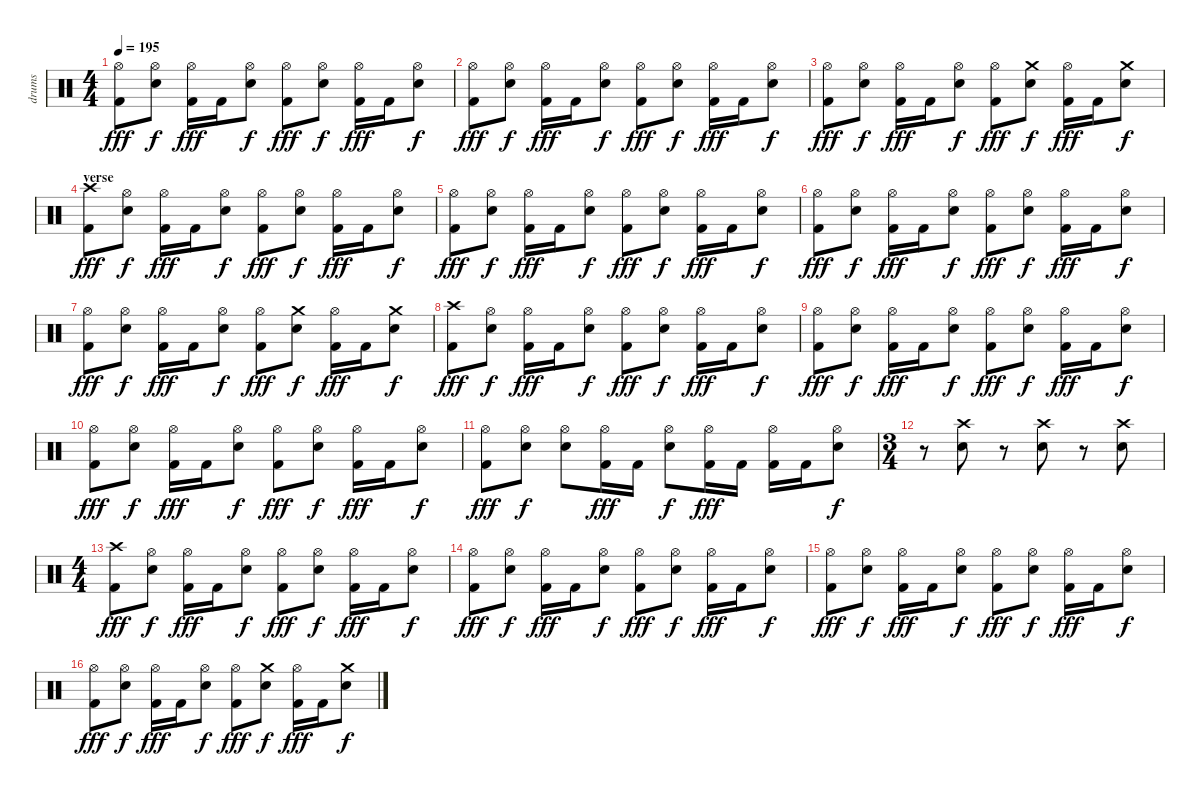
\track ("drums" "drums") {instrument percussion}
\staff {score}
\articulation defaults
\ts (4 4)
\tempo 195
\clef neutral
\ks c
("Hi-Hat (open)" "Kick (hit) 2").8{dy fff} ("Hi-Hat (open)" "Snare (hit) 2").8{dy f} ("Hi-Hat (open)" "Kick (hit) 2").16{dy fff} "Kick (hit) 2".16 ("Hi-Hat (open)" "Snare (hit) 2").8{dy f} ("Hi-Hat (open)" "Kick (hit) 2").8{dy fff} ("Hi-Hat (open)" "Snare (hit) 2").8{dy f} ("Hi-Hat (open)" "Kick (hit) 2").16{dy fff} "Kick (hit) 2".16 ("Hi-Hat (open)" "Snare (hit) 2").8{dy f} |
("Hi-Hat (open)" "Kick (hit) 2").8{dy fff} ("Hi-Hat (open)" "Snare (hit) 2").8{dy f} ("Hi-Hat (open)" "Kick (hit) 2").16{dy fff} "Kick (hit) 2".16 ("Hi-Hat (open)" "Snare (hit) 2").8{dy f} ("Hi-Hat (open)" "Kick (hit) 2").8{dy fff} ("Hi-Hat (open)" "Snare (hit) 2").8{dy f} ("Hi-Hat (open)" "Kick (hit) 2").16{dy fff} "Kick (hit) 2".16 ("Hi-Hat (open)" "Snare (hit) 2").8{dy f} |
("Hi-Hat (open)" "Kick (hit) 2").8{dy fff} ("Hi-Hat (open)" "Snare (hit) 2").8{dy f} ("Hi-Hat (open)" "Kick (hit) 2").16{dy fff} "Kick (hit) 2".16 ("Hi-Hat (open)" "Snare (hit) 2").8{dy f} ("Hi-Hat (open)" "Kick (hit) 2").8{dy fff} ("Crash medium (hit)" "Snare (hit) 2").8{dy f} ("Hi-Hat (open)" "Kick (hit) 2").16{dy fff} "Kick (hit) 2".16 ("Crash medium (hit)" "Snare (hit) 2").8{dy f} |
\section ("" "verse")
("Crash high (hit)" "Kick (hit) 2").8{dy fff} ("Hi-Hat (open)" "Snare (hit) 2").8{dy f} ("Hi-Hat (open)" "Kick (hit) 2").16{dy fff} "Kick (hit) 2".16 ("Hi-Hat (open)" "Snare (hit) 2").8{dy f} ("Hi-Hat (open)" "Kick (hit) 2").8{dy fff} ("Hi-Hat (open)" "Snare (hit) 2").8{dy f} ("Hi-Hat (open)" "Kick (hit) 2").16{dy fff} "Kick (hit) 2".16 ("Hi-Hat (open)" "Snare (hit) 2").8{dy f} |
("Hi-Hat (open)" "Kick (hit) 2").8{dy fff} ("Hi-Hat (open)" "Snare (hit) 2").8{dy f} ("Hi-Hat (open)" "Kick (hit) 2").16{dy fff} "Kick (hit) 2".16 ("Hi-Hat (open)" "Snare (hit) 2").8{dy f} ("Hi-Hat (open)" "Kick (hit) 2").8{dy fff} ("Hi-Hat (open)" "Snare (hit) 2").8{dy f} ("Hi-Hat (open)" "Kick (hit) 2").16{dy fff} "Kick (hit) 2".16 ("Hi-Hat (open)" "Snare (hit) 2").8{dy f} |
("Hi-Hat (open)" "Kick (hit) 2").8{dy fff} ("Hi-Hat (open)" "Snare (hit) 2").8{dy f} ("Hi-Hat (open)" "Kick (hit) 2").16{dy fff} "Kick (hit) 2".16 ("Hi-Hat (open)" "Snare (hit) 2").8{dy f} ("Hi-Hat (open)" "Kick (hit) 2").8{dy fff} ("Hi-Hat (open)" "Snare (hit) 2").8{dy f} ("Hi-Hat (open)" "Kick (hit) 2").16{dy fff} "Kick (hit) 2".16 ("Hi-Hat (open)" "Snare (hit) 2").8{dy f} |
("Hi-Hat (open)" "Kick (hit) 2").8{dy fff} ("Hi-Hat (open)" "Snare (hit) 2").8{dy f} ("Hi-Hat (open)" "Kick (hit) 2").16{dy fff} "Kick (hit) 2".16 ("Hi-Hat (open)" "Snare (hit) 2").8{dy f} ("Hi-Hat (open)" "Kick (hit) 2").8{dy fff} ("Crash medium (hit)" "Snare (hit) 2").8{dy f} ("Hi-Hat (open)" "Kick (hit) 2").16{dy fff} "Kick (hit) 2".16 ("Crash medium (hit)" "Snare (hit) 2").8{dy f} |
("Crash high (hit)" "Kick (hit) 2").8{dy fff} ("Hi-Hat (open)" "Snare (hit) 2").8{dy f} ("Hi-Hat (open)" "Kick (hit) 2").16{dy fff} "Kick (hit) 2".16 ("Hi-Hat (open)" "Snare (hit) 2").8{dy f} ("Hi-Hat (open)" "Kick (hit) 2").8{dy fff} ("Hi-Hat (open)" "Snare (hit) 2").8{dy f} ("Hi-Hat (open)" "Kick (hit) 2").16{dy fff} "Kick (hit) 2".16 ("Hi-Hat (open)" "Snare (hit) 2").8{dy f} |
("Hi-Hat (open)" "Kick (hit) 2").8{dy fff} ("Hi-Hat (open)" "Snare (hit) 2").8{dy f} ("Hi-Hat (open)" "Kick (hit) 2").16{dy fff} "Kick (hit) 2".16 ("Hi-Hat (open)" "Snare (hit) 2").8{dy f} ("Hi-Hat (open)" "Kick (hit) 2").8{dy fff} ("Hi-Hat (open)" "Snare (hit) 2").8{dy f} ("Hi-Hat (open)" "Kick (hit) 2").16{dy fff} "Kick (hit) 2".16 ("Hi-Hat (open)" "Snare (hit) 2").8{dy f} |
("Hi-Hat (open)" "Kick (hit) 2").8{dy fff} ("Hi-Hat (open)" "Snare (hit) 2").8{dy f} ("Hi-Hat (open)" "Kick (hit) 2").16{dy fff} "Kick (hit) 2".16 ("Hi-Hat (open)" "Snare (hit) 2").8{dy f} ("Hi-Hat (open)" "Kick (hit) 2").8{dy fff} ("Hi-Hat (open)" "Snare (hit) 2").8{dy f} ("Hi-Hat (open)" "Kick (hit) 2").16{dy fff} "Kick (hit) 2".16 ("Hi-Hat (open)" "Snare (hit) 2").8{dy f} |
("Hi-Hat (open)" "Kick (hit) 2").8{dy fff} ("Hi-Hat (open)" "Snare (hit) 2").8{dy f} ("Hi-Hat (open)" "Snare (hit) 2").8 ("Hi-Hat (open)" "Kick (hit) 2").16{dy fff} "Kick (hit) 2".16 ("Hi-Hat (open)" "Snare (hit) 2").8{dy f} ("Hi-Hat (open)" "Kick (hit) 2").16{dy fff} "Kick (hit) 2".16 ("Hi-Hat (open)" "Kick (hit) 2").16 "Kick (hit) 2".16 ("Hi-Hat (open)" "Snare (hit) 2").8{dy f} |
\ts (3 4)
r.8 ("Crash high (hit)" "Snare (hit) 2").8 r.8 ("Crash high (hit)" "Snare (hit) 2").8 r.8 ("Crash high (hit)" "Snare (hit) 2").8 |
\ts (4 4)
("Crash high (hit)" "Kick (hit) 2").8{dy fff} ("Hi-Hat (open)" "Snare (hit) 2").8{dy f} ("Hi-Hat (open)" "Kick (hit) 2").16{dy fff} "Kick (hit) 2".16 ("Hi-Hat (open)" "Snare (hit) 2").8{dy f} ("Hi-Hat (open)" "Kick (hit) 2").8{dy fff} ("Hi-Hat (open)" "Snare (hit) 2").8{dy f} ("Hi-Hat (open)" "Kick (hit) 2").16{dy fff} "Kick (hit) 2".16 ("Hi-Hat (open)" "Snare (hit) 2").8{dy f} |
("Hi-Hat (open)" "Kick (hit) 2").8{dy fff} ("Hi-Hat (open)" "Snare (hit) 2").8{dy f} ("Hi-Hat (open)" "Kick (hit) 2").16{dy fff} "Kick (hit) 2".16 ("Hi-Hat (open)" "Snare (hit) 2").8{dy f} ("Hi-Hat (open)" "Kick (hit) 2").8{dy fff} ("Hi-Hat (open)" "Snare (hit) 2").8{dy f} ("Hi-Hat (open)" "Kick (hit) 2").16{dy fff} "Kick (hit) 2".16 ("Hi-Hat (open)" "Snare (hit) 2").8{dy f} |
("Hi-Hat (open)" "Kick (hit) 2").8{dy fff} ("Hi-Hat (open)" "Snare (hit) 2").8{dy f} ("Hi-Hat (open)" "Kick (hit) 2").16{dy fff} "Kick (hit) 2".16 ("Hi-Hat (open)" "Snare (hit) 2").8{dy f} ("Hi-Hat (open)" "Kick (hit) 2").8{dy fff} ("Hi-Hat (open)" "Snare (hit) 2").8{dy f} ("Hi-Hat (open)" "Kick (hit) 2").16{dy fff} "Kick (hit) 2".16 ("Hi-Hat (open)" "Snare (hit) 2").8{dy f} |
("Hi-Hat (open)" "Kick (hit) 2").8{dy fff} ("Hi-Hat (open)" "Snare (hit) 2").8{dy f} ("Hi-Hat (open)" "Kick (hit) 2").16{dy fff} "Kick (hit) 2".16 ("Hi-Hat (open)" "Snare (hit) 2").8{dy f} ("Hi-Hat (open)" "Kick (hit) 2").8{dy fff} ("Crash medium (hit)" "Snare (hit) 2").8{dy f} ("Hi-Hat (open)" "Kick (hit) 2").16{dy fff} "Kick (hit) 2".16 ("Crash medium (hit)" "Snare (hit) 2").8{dy f}
